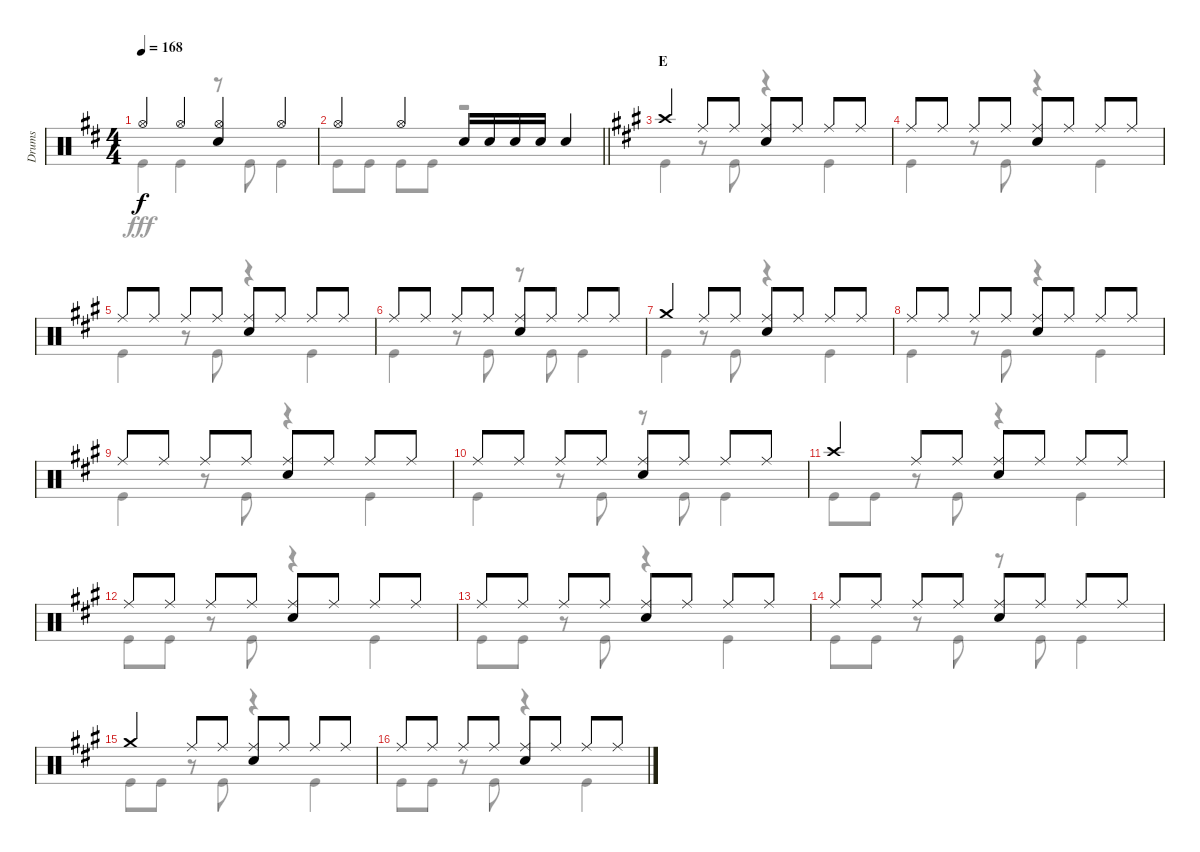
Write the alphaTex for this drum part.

\track ("Drums" "Drums") {instrument percussion}
\staff {score}
\articulation defaults
\voice
\ts (4 4)
\tempo 168
\clef neutral
\ks d "Hi-Hat (open)".4{dy f} "Hi-Hat (open)".4
("Hi-Hat (open)" "Snare (hit) 2").4 "Hi-Hat (open)".4 |
\barLineRight lightlight "Hi-Hat (open)".4 "Hi-Hat (open)".4 "Snare (hit) 2".16 "Snare (hit) 2".16 "Snare (hit) 2".16 "Snare (hit) 2".16 "Snare (hit) 2".4
|
\section ("" "E")
\ks a "Crash high (hit)".4 "Ride (middle)".8 "Ride (middle)".8
("Ride (middle)" "Snare (hit) 2").8 "Ride (middle)".8 "Ride (middle)".8 "Ride (middle)".8 |
"Ride (middle)".8 "Ride (middle)".8 "Ride (middle)".8 "Ride (middle)".8 ("Ride (middle)" "Snare (hit) 2").8 "Ride (middle)".8 "Ride (middle)".8 "Ride (middle)".8 |
"Ride (middle)".8 "Ride (middle)".8 "Ride (middle)".8 "Ride (middle)".8 ("Ride (middle)" "Snare (hit) 2").8 "Ride (middle)".8 "Ride (middle)".8 "Ride (middle)".8 |
"Ride (middle)".8 "Ride (middle)".8 "Ride (middle)".8 "Ride (middle)".8 ("Ride (middle)" "Snare (hit) 2").8 "Ride (middle)".8 "Ride (middle)".8 "Ride (middle)".8 |
"Crash medium (hit)".4 "Ride (middle)".8 "Ride (middle)".8 ("Ride (middle)" "Snare (hit) 2").8 "Ride (middle)".8 "Ride (middle)".8 "Ride (middle)".8 |
"Ride (middle)".8 "Ride (middle)".8 "Ride (middle)".8 "Ride (middle)".8 ("Ride (middle)" "Snare (hit) 2").8 "Ride (middle)".8 "Ride (middle)".8 "Ride (middle)".8 |
"Ride (middle)".8 "Ride (middle)".8 "Ride (middle)".8 "Ride (middle)".8 ("Ride (middle)" "Snare (hit) 2").8 "Ride (middle)".8 "Ride (middle)".8 "Ride (middle)".8 |
"Ride (middle)".8 "Ride (middle)".8 "Ride (middle)".8 "Ride (middle)".8 ("Ride (middle)" "Snare (hit) 2").8 "Ride (middle)".8 "Ride (middle)".8 "Ride (middle)".8 |
"Crash high (hit)".4 "Ride (middle)".8 "Ride (middle)".8 ("Ride (middle)" "Snare (hit) 2").8 "Ride (middle)".8 "Ride (middle)".8 "Ride (middle)".8 |
"Ride (middle)".8 "Ride (middle)".8 "Ride (middle)".8 "Ride (middle)".8 ("Ride (middle)" "Snare (hit) 2").8 "Ride (middle)".8 "Ride (middle)".8 "Ride (middle)".8 |
"Ride (middle)".8 "Ride (middle)".8 "Ride (middle)".8 "Ride (middle)".8 ("Ride (middle)" "Snare (hit) 2").8 "Ride (middle)".8 "Ride (middle)".8 "Ride (middle)".8 |
"Ride (middle)".8 "Ride (middle)".8 "Ride (middle)".8 "Ride (middle)".8 ("Ride (middle)" "Snare (hit) 2").8 "Ride (middle)".8 "Ride (middle)".8 "Ride (middle)".8 |
"Crash medium (hit)".4 "Ride (middle)".8 "Ride (middle)".8 ("Ride (middle)" "Snare (hit) 2").8 "Ride (middle)".8 "Ride (middle)".8 "Ride (middle)".8 |
"Ride (middle)".8 "Ride (middle)".8 "Ride (middle)".8 "Ride (middle)".8 ("Ride (middle)" "Snare (hit) 2").8 "Ride (middle)".8 "Ride (middle)".8 "Ride (middle)".8
\voice
\clef neutral
\ottava regular
\simile none
\ks d "Kick (hit)".4{dy fff} "Kick (hit)".4
r.8 "Kick (hit)".8 "Kick (hit)".4 |
\barLineRight lightlight "Kick (hit)".8 "Kick (hit)".8 "Kick (hit)".8 "Kick (hit)".8
r.2 |
\ks a "Kick (hit)".4
r.8 "Kick (hit)".8 r.4 "Kick (hit)".4 |
"Kick (hit)".4 r.8 "Kick (hit)".8 r.4 "Kick (hit)".4 |
"Kick (hit)".4 r.8 "Kick (hit)".8 r.4 "Kick (hit)".4 |
"Kick (hit)".4 r.8 "Kick (hit)".8 r.8 "Kick (hit)".8 "Kick (hit)".4 |
"Kick (hit)".4 r.8 "Kick (hit)".8 r.4 "Kick (hit)".4 |
"Kick (hit)".4 r.8 "Kick (hit)".8 r.4 "Kick (hit)".4 |
"Kick (hit)".4 r.8 "Kick (hit)".8 r.4 "Kick (hit)".4 |
"Kick (hit)".4 r.8 "Kick (hit)".8 r.8 "Kick (hit)".8 "Kick (hit)".4 |
"Kick (hit)".8 "Kick (hit)".8 r.8 "Kick (hit)".8 r.4 "Kick (hit)".4 |
"Kick (hit)".8 "Kick (hit)".8 r.8 "Kick (hit)".8 r.4 "Kick (hit)".4 |
"Kick (hit)".8 "Kick (hit)".8 r.8 "Kick (hit)".8 r.4 "Kick (hit)".4 |
"Kick (hit)".8 "Kick (hit)".8 r.8 "Kick (hit)".8 r.8 "Kick (hit)".8 "Kick (hit)".4 |
"Kick (hit)".8 "Kick (hit)".8 r.8 "Kick (hit)".8 r.4 "Kick (hit)".4 |
"Kick (hit)".8 "Kick (hit)".8 r.8 "Kick (hit)".8 r.4 "Kick (hit)".4
